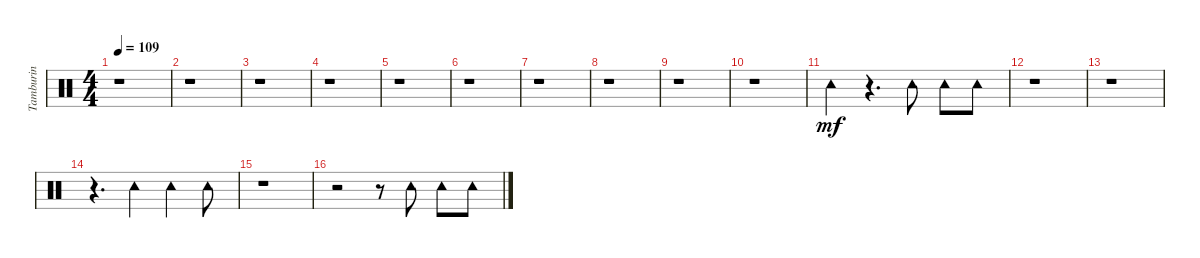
\track ("Tamburin" "Tamburin") {instrument percussion}
\staff {score}
\articulation defaults
\ts (4 4)
\tempo 109
\clef neutral
\ks c
r.1{dy mf} |
r.1 |
r.1 |
r.1 |
r.1 |
r.1 |
r.1 |
r.1 |
r.1 |
r.1 |
"Tambourine (hit)".4 r.4{d} "Tambourine (hit)".8 "Tambourine (hit)".8 "Tambourine (hit)".8 |
r.1 |
r.1 |
r.4{d} "Tambourine (hit)".4 "Tambourine (hit)".4 "Tambourine (hit)".8 |
r.1 |
r.2 r.8 "Tambourine (hit)".8 "Tambourine (hit)".8 "Tambourine (hit)".8
